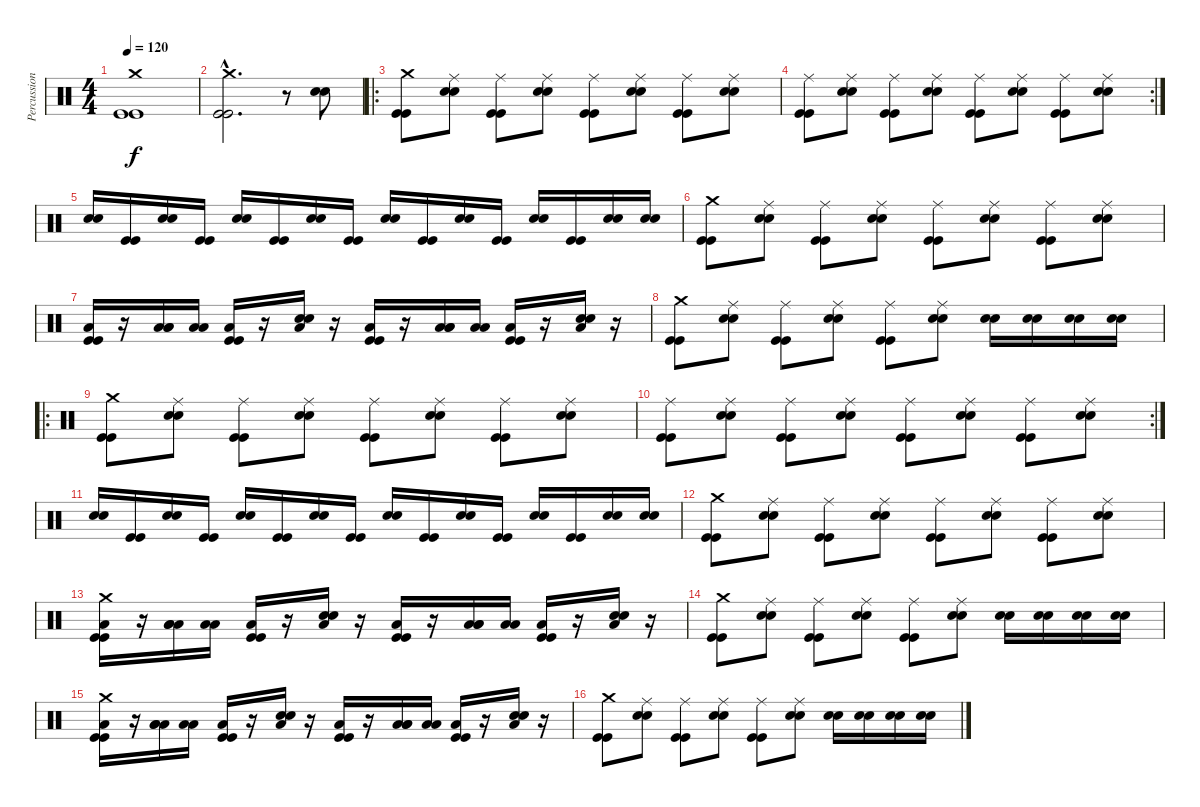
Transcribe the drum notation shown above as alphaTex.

\track ("Percussion" "Percussion") {instrument percussion}
\staff {score}
\articulation defaults
\ts (4 4)
\tempo 120
\clef neutral
\ks c
("Crash medium (hit)" "Kick (hit)" "Kick (hit)").1{dy f} |
("Crash medium (hit)"{hac} "Kick (hit)"{hac} "Kick (hit)"{hac}).2{d} r.8 ("Electric Snare (hit)" "Electric Snare (hit)").8 |
\ro
("Crash medium (hit)" "Kick (hit)" "Kick (hit)").8 ("Electric Snare (hit)" "Electric Snare (hit)" "Ride (middle)").8 ("Kick (hit)" "Kick (hit)" "Ride (middle)").8 ("Electric Snare (hit)" "Electric Snare (hit)" "Ride (middle)").8 ("Kick (hit)" "Kick (hit)" "Ride (middle)").8 ("Electric Snare (hit)" "Electric Snare (hit)" "Ride (middle)").8 ("Kick (hit)" "Kick (hit)" "Ride (middle)").8 ("Electric Snare (hit)" "Electric Snare (hit)" "Ride (middle)").8 |
\rc 2
("Kick (hit)" "Kick (hit)" "Ride (middle)").8 ("Electric Snare (hit)" "Electric Snare (hit)" "Ride (middle)").8 ("Kick (hit)" "Kick (hit)" "Ride (middle)").8 ("Electric Snare (hit)" "Electric Snare (hit)" "Ride (middle)").8 ("Kick (hit)" "Kick (hit)" "Ride (middle)").8 ("Electric Snare (hit)" "Electric Snare (hit)" "Ride (middle)").8 ("Kick (hit)" "Kick (hit)" "Ride (middle)").8 ("Electric Snare (hit)" "Electric Snare (hit)" "Ride (middle)").8 |
("Electric Snare (hit)" "Electric Snare (hit)").16 ("Kick (hit)" "Kick (hit)").16 ("Electric Snare (hit)" "Electric Snare (hit)").16 ("Kick (hit)" "Kick (hit)").16 ("Electric Snare (hit)" "Electric Snare (hit)").16 ("Kick (hit)" "Kick (hit)").16 ("Electric Snare (hit)" "Electric Snare (hit)").16 ("Kick (hit)" "Kick (hit)").16 ("Electric Snare (hit)" "Electric Snare (hit)").16 ("Kick (hit)" "Kick (hit)").16 ("Electric Snare (hit)" "Electric Snare (hit)").16 ("Kick (hit)" "Kick (hit)").16 ("Electric Snare (hit)" "Electric Snare (hit)").16 ("Kick (hit)" "Kick (hit)").16 ("Electric Snare (hit)" "Electric Snare (hit)").16 ("Electric Snare (hit)" "Electric Snare (hit)").16 |
("Crash medium (hit)" "Kick (hit)" "Kick (hit)").8 ("Electric Snare (hit)" "Electric Snare (hit)" "Ride (middle)").8 ("Kick (hit)" "Kick (hit)" "Ride (middle)").8 ("Electric Snare (hit)" "Electric Snare (hit)" "Ride (middle)").8 ("Kick (hit)" "Kick (hit)" "Ride (middle)").8 ("Electric Snare (hit)" "Electric Snare (hit)" "Ride (middle)").8 ("Kick (hit)" "Kick (hit)" "Ride (middle)").8 ("Electric Snare (hit)" "Electric Snare (hit)" "Ride (middle)").8 |
("Kick (hit)" "Kick (hit)" "Low Floor Tom (hit)").16 r.16 ("Low Tom (hit)" "Low Floor Tom (hit)" "Low Floor Tom (hit)").16 ("Low Tom (hit)" "Low Floor Tom (hit)").16 ("Kick (hit)" "Kick (hit)" "Low Floor Tom (hit)").16 r.16 ("Electric Snare (hit)" "Electric Snare (hit)" "Low Floor Tom (hit)").16 r.16 ("Kick (hit)" "Kick (hit)" "Low Floor Tom (hit)").16 r.16 ("Low Tom (hit)" "Low Floor Tom (hit)" "Low Floor Tom (hit)").16 ("Low Tom (hit)" "Low Floor Tom (hit)").16 ("Kick (hit)" "Kick (hit)" "Low Floor Tom (hit)").16 r.16 ("Electric Snare (hit)" "Electric Snare (hit)" "Low Floor Tom (hit)").16 r.16 |
("Crash medium (hit)" "Kick (hit)" "Kick (hit)").8 ("Electric Snare (hit)" "Electric Snare (hit)" "Ride (middle)").8 ("Kick (hit)" "Kick (hit)" "Ride (middle)").8 ("Electric Snare (hit)" "Electric Snare (hit)" "Ride (middle)").8 ("Kick (hit)" "Kick (hit)" "Ride (middle)").8 ("Electric Snare (hit)" "Electric Snare (hit)" "Ride (middle)").8 ("Electric Snare (hit)" "Electric Snare (hit)").16 ("Electric Snare (hit)" "Electric Snare (hit)").16 ("Electric Snare (hit)" "Electric Snare (hit)").16 ("Electric Snare (hit)" "Electric Snare (hit)").16 |
\ro
("Crash medium (hit)" "Kick (hit)" "Kick (hit)").8 ("Electric Snare (hit)" "Electric Snare (hit)" "Ride (middle)").8 ("Kick (hit)" "Kick (hit)" "Ride (middle)").8 ("Electric Snare (hit)" "Electric Snare (hit)" "Ride (middle)").8 ("Kick (hit)" "Kick (hit)" "Ride (middle)").8 ("Electric Snare (hit)" "Electric Snare (hit)" "Ride (middle)").8 ("Kick (hit)" "Kick (hit)" "Ride (middle)").8 ("Electric Snare (hit)" "Electric Snare (hit)" "Ride (middle)").8 |
\rc 2
("Kick (hit)" "Kick (hit)" "Ride (middle)").8 ("Electric Snare (hit)" "Electric Snare (hit)" "Ride (middle)").8 ("Kick (hit)" "Kick (hit)" "Ride (middle)").8 ("Electric Snare (hit)" "Electric Snare (hit)" "Ride (middle)").8 ("Kick (hit)" "Kick (hit)" "Ride (middle)").8 ("Electric Snare (hit)" "Electric Snare (hit)" "Ride (middle)").8 ("Kick (hit)" "Kick (hit)" "Ride (middle)").8 ("Electric Snare (hit)" "Electric Snare (hit)" "Ride (middle)").8 |
("Electric Snare (hit)" "Electric Snare (hit)").16 ("Kick (hit)" "Kick (hit)").16 ("Electric Snare (hit)" "Electric Snare (hit)").16 ("Kick (hit)" "Kick (hit)").16 ("Electric Snare (hit)" "Electric Snare (hit)").16 ("Kick (hit)" "Kick (hit)").16 ("Electric Snare (hit)" "Electric Snare (hit)").16 ("Kick (hit)" "Kick (hit)").16 ("Electric Snare (hit)" "Electric Snare (hit)").16 ("Kick (hit)" "Kick (hit)").16 ("Electric Snare (hit)" "Electric Snare (hit)").16 ("Kick (hit)" "Kick (hit)").16 ("Electric Snare (hit)" "Electric Snare (hit)").16 ("Kick (hit)" "Kick (hit)").16 ("Electric Snare (hit)" "Electric Snare (hit)").16 ("Electric Snare (hit)" "Electric Snare (hit)").16 |
("Crash medium (hit)" "Kick (hit)" "Kick (hit)").8 ("Electric Snare (hit)" "Electric Snare (hit)" "Ride (middle)").8 ("Kick (hit)" "Kick (hit)" "Ride (middle)").8 ("Electric Snare (hit)" "Electric Snare (hit)" "Ride (middle)").8 ("Kick (hit)" "Kick (hit)" "Ride (middle)").8 ("Electric Snare (hit)" "Electric Snare (hit)" "Ride (middle)").8 ("Kick (hit)" "Kick (hit)" "Ride (middle)").8 ("Electric Snare (hit)" "Electric Snare (hit)" "Ride (middle)").8 |
("Crash medium (hit)" "Kick (hit)" "Kick (hit)" "Low Floor Tom (hit)").16 r.16 ("Low Tom (hit)" "Low Floor Tom (hit)" "Low Floor Tom (hit)").16 ("Low Tom (hit)" "Low Floor Tom (hit)").16 ("Kick (hit)" "Kick (hit)" "Low Floor Tom (hit)").16 r.16 ("Electric Snare (hit)" "Electric Snare (hit)" "Low Floor Tom (hit)").16 r.16 ("Kick (hit)" "Kick (hit)" "Low Floor Tom (hit)").16 r.16 ("Low Tom (hit)" "Low Floor Tom (hit)" "Low Floor Tom (hit)").16 ("Low Tom (hit)" "Low Floor Tom (hit)").16 ("Kick (hit)" "Kick (hit)" "Low Floor Tom (hit)").16 r.16 ("Electric Snare (hit)" "Electric Snare (hit)" "Low Floor Tom (hit)").16 r.16 |
("Crash medium (hit)" "Kick (hit)" "Kick (hit)").8 ("Electric Snare (hit)" "Electric Snare (hit)" "Ride (middle)").8 ("Kick (hit)" "Kick (hit)" "Ride (middle)").8 ("Electric Snare (hit)" "Electric Snare (hit)" "Ride (middle)").8 ("Kick (hit)" "Kick (hit)" "Ride (middle)").8 ("Electric Snare (hit)" "Electric Snare (hit)" "Ride (middle)").8 ("Electric Snare (hit)" "Electric Snare (hit)").16 ("Electric Snare (hit)" "Electric Snare (hit)").16 ("Electric Snare (hit)" "Electric Snare (hit)").16 ("Electric Snare (hit)" "Electric Snare (hit)").16 |
("Crash medium (hit)" "Kick (hit)" "Kick (hit)" "Low Floor Tom (hit)").16 r.16 ("Low Tom (hit)" "Low Floor Tom (hit)" "Low Floor Tom (hit)").16 ("Low Tom (hit)" "Low Floor Tom (hit)").16 ("Kick (hit)" "Kick (hit)" "Low Floor Tom (hit)").16 r.16 ("Electric Snare (hit)" "Electric Snare (hit)" "Low Floor Tom (hit)").16 r.16 ("Kick (hit)" "Kick (hit)" "Low Floor Tom (hit)").16 r.16 ("Low Tom (hit)" "Low Floor Tom (hit)" "Low Floor Tom (hit)").16 ("Low Tom (hit)" "Low Floor Tom (hit)").16 ("Kick (hit)" "Kick (hit)" "Low Floor Tom (hit)").16 r.16 ("Electric Snare (hit)" "Electric Snare (hit)" "Low Floor Tom (hit)").16 r.16 |
("Crash medium (hit)" "Kick (hit)" "Kick (hit)").8 ("Electric Snare (hit)" "Electric Snare (hit)" "Ride (middle)").8 ("Kick (hit)" "Kick (hit)" "Ride (middle)").8 ("Electric Snare (hit)" "Electric Snare (hit)" "Ride (middle)").8 ("Kick (hit)" "Kick (hit)" "Ride (middle)").8 ("Electric Snare (hit)" "Electric Snare (hit)" "Ride (middle)").8 ("Electric Snare (hit)" "Electric Snare (hit)").16 ("Electric Snare (hit)" "Electric Snare (hit)").16 ("Electric Snare (hit)" "Electric Snare (hit)").16 ("Electric Snare (hit)" "Electric Snare (hit)").16
